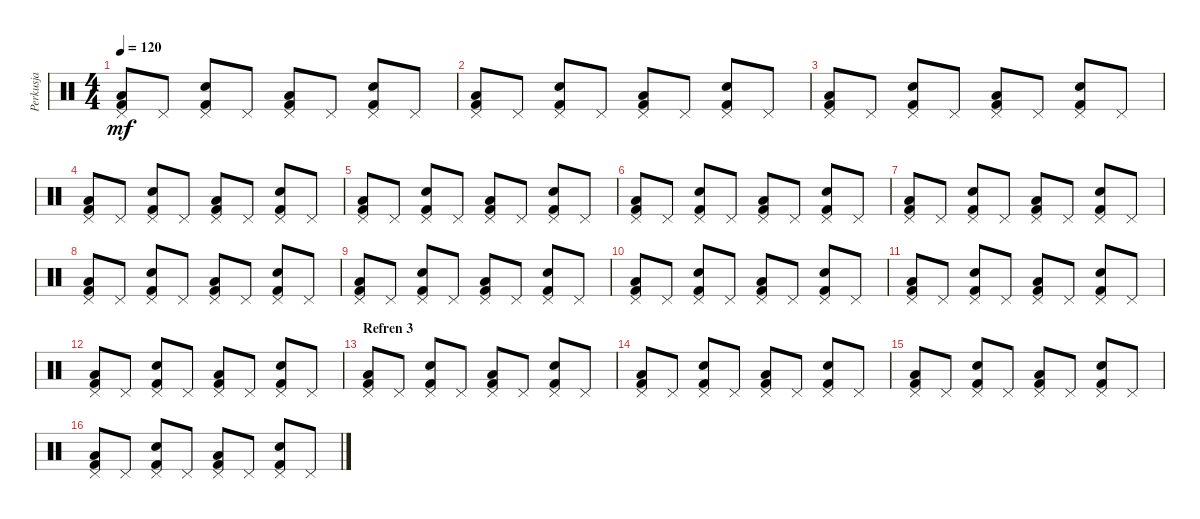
\track ("Perkusja" "Perkusja") {instrument percussion}
\staff {score}
\articulation defaults
\ts (4 4)
\tempo 120
\clef neutral
\ks c
("Pedal Hi-Hat (hit)" "Low Floor Tom (hit)" "Kick (hit) 2").8{dy mf} "Pedal Hi-Hat (hit)".8 ("Pedal Hi-Hat (hit)" "Electric Snare (hit)" "Kick (hit) 2").8 "Pedal Hi-Hat (hit)".8 ("Pedal Hi-Hat (hit)" "Low Floor Tom (hit)" "Kick (hit) 2").8 "Pedal Hi-Hat (hit)".8 ("Pedal Hi-Hat (hit)" "Electric Snare (hit)" "Kick (hit) 2").8 "Pedal Hi-Hat (hit)".8 |
("Pedal Hi-Hat (hit)" "Low Floor Tom (hit)" "Kick (hit) 2").8 "Pedal Hi-Hat (hit)".8 ("Pedal Hi-Hat (hit)" "Electric Snare (hit)" "Kick (hit) 2").8 "Pedal Hi-Hat (hit)".8 ("Pedal Hi-Hat (hit)" "Low Floor Tom (hit)" "Kick (hit) 2").8 "Pedal Hi-Hat (hit)".8 ("Pedal Hi-Hat (hit)" "Electric Snare (hit)" "Kick (hit) 2").8 "Pedal Hi-Hat (hit)".8 |
("Pedal Hi-Hat (hit)" "Low Floor Tom (hit)" "Kick (hit) 2").8 "Pedal Hi-Hat (hit)".8 ("Pedal Hi-Hat (hit)" "Electric Snare (hit)" "Kick (hit) 2").8 "Pedal Hi-Hat (hit)".8 ("Pedal Hi-Hat (hit)" "Low Floor Tom (hit)" "Kick (hit) 2").8 "Pedal Hi-Hat (hit)".8 ("Pedal Hi-Hat (hit)" "Electric Snare (hit)" "Kick (hit) 2").8 "Pedal Hi-Hat (hit)".8 |
("Pedal Hi-Hat (hit)" "Low Floor Tom (hit)" "Kick (hit) 2").8 "Pedal Hi-Hat (hit)".8 ("Pedal Hi-Hat (hit)" "Electric Snare (hit)" "Kick (hit) 2").8 "Pedal Hi-Hat (hit)".8 ("Pedal Hi-Hat (hit)" "Low Floor Tom (hit)" "Kick (hit) 2").8 "Pedal Hi-Hat (hit)".8 ("Pedal Hi-Hat (hit)" "Electric Snare (hit)" "Kick (hit) 2").8 "Pedal Hi-Hat (hit)".8 |
("Pedal Hi-Hat (hit)" "Low Floor Tom (hit)" "Kick (hit) 2").8 "Pedal Hi-Hat (hit)".8 ("Pedal Hi-Hat (hit)" "Electric Snare (hit)" "Kick (hit) 2").8 "Pedal Hi-Hat (hit)".8 ("Pedal Hi-Hat (hit)" "Low Floor Tom (hit)" "Kick (hit) 2").8 "Pedal Hi-Hat (hit)".8 ("Pedal Hi-Hat (hit)" "Electric Snare (hit)" "Kick (hit) 2").8 "Pedal Hi-Hat (hit)".8 |
("Pedal Hi-Hat (hit)" "Low Floor Tom (hit)" "Kick (hit) 2").8 "Pedal Hi-Hat (hit)".8 ("Pedal Hi-Hat (hit)" "Electric Snare (hit)" "Kick (hit) 2").8 "Pedal Hi-Hat (hit)".8 ("Pedal Hi-Hat (hit)" "Low Floor Tom (hit)" "Kick (hit) 2").8 "Pedal Hi-Hat (hit)".8 ("Pedal Hi-Hat (hit)" "Electric Snare (hit)" "Kick (hit) 2").8 "Pedal Hi-Hat (hit)".8 |
("Pedal Hi-Hat (hit)" "Low Floor Tom (hit)" "Kick (hit) 2").8 "Pedal Hi-Hat (hit)".8 ("Pedal Hi-Hat (hit)" "Electric Snare (hit)" "Kick (hit) 2").8 "Pedal Hi-Hat (hit)".8 ("Pedal Hi-Hat (hit)" "Low Floor Tom (hit)" "Kick (hit) 2").8 "Pedal Hi-Hat (hit)".8 ("Pedal Hi-Hat (hit)" "Electric Snare (hit)" "Kick (hit) 2").8 "Pedal Hi-Hat (hit)".8 |
("Pedal Hi-Hat (hit)" "Low Floor Tom (hit)" "Kick (hit) 2").8 "Pedal Hi-Hat (hit)".8 ("Pedal Hi-Hat (hit)" "Electric Snare (hit)" "Kick (hit) 2").8 "Pedal Hi-Hat (hit)".8 ("Pedal Hi-Hat (hit)" "Low Floor Tom (hit)" "Kick (hit) 2").8 "Pedal Hi-Hat (hit)".8 ("Pedal Hi-Hat (hit)" "Electric Snare (hit)" "Kick (hit) 2").8 "Pedal Hi-Hat (hit)".8 |
("Pedal Hi-Hat (hit)" "Low Floor Tom (hit)" "Kick (hit) 2").8 "Pedal Hi-Hat (hit)".8 ("Pedal Hi-Hat (hit)" "Electric Snare (hit)" "Kick (hit) 2").8 "Pedal Hi-Hat (hit)".8 ("Pedal Hi-Hat (hit)" "Low Floor Tom (hit)" "Kick (hit) 2").8 "Pedal Hi-Hat (hit)".8 ("Pedal Hi-Hat (hit)" "Electric Snare (hit)" "Kick (hit) 2").8 "Pedal Hi-Hat (hit)".8 |
("Pedal Hi-Hat (hit)" "Low Floor Tom (hit)" "Kick (hit) 2").8 "Pedal Hi-Hat (hit)".8 ("Pedal Hi-Hat (hit)" "Electric Snare (hit)" "Kick (hit) 2").8 "Pedal Hi-Hat (hit)".8 ("Pedal Hi-Hat (hit)" "Low Floor Tom (hit)" "Kick (hit) 2").8 "Pedal Hi-Hat (hit)".8 ("Pedal Hi-Hat (hit)" "Electric Snare (hit)" "Kick (hit) 2").8 "Pedal Hi-Hat (hit)".8 |
("Pedal Hi-Hat (hit)" "Low Floor Tom (hit)" "Kick (hit) 2").8 "Pedal Hi-Hat (hit)".8 ("Pedal Hi-Hat (hit)" "Electric Snare (hit)" "Kick (hit) 2").8 "Pedal Hi-Hat (hit)".8 ("Pedal Hi-Hat (hit)" "Low Floor Tom (hit)" "Kick (hit) 2").8 "Pedal Hi-Hat (hit)".8 ("Pedal Hi-Hat (hit)" "Electric Snare (hit)" "Kick (hit) 2").8 "Pedal Hi-Hat (hit)".8 |
("Pedal Hi-Hat (hit)" "Low Floor Tom (hit)" "Kick (hit) 2").8 "Pedal Hi-Hat (hit)".8 ("Pedal Hi-Hat (hit)" "Electric Snare (hit)" "Kick (hit) 2").8 "Pedal Hi-Hat (hit)".8 ("Pedal Hi-Hat (hit)" "Low Floor Tom (hit)" "Kick (hit) 2").8 "Pedal Hi-Hat (hit)".8 ("Pedal Hi-Hat (hit)" "Electric Snare (hit)" "Kick (hit) 2").8 "Pedal Hi-Hat (hit)".8 |
\section ("" "Refren 3")
("Pedal Hi-Hat (hit)" "Low Floor Tom (hit)" "Kick (hit) 2").8 "Pedal Hi-Hat (hit)".8 ("Pedal Hi-Hat (hit)" "Electric Snare (hit)" "Kick (hit) 2").8 "Pedal Hi-Hat (hit)".8 ("Pedal Hi-Hat (hit)" "Low Floor Tom (hit)" "Kick (hit) 2").8 "Pedal Hi-Hat (hit)".8 ("Pedal Hi-Hat (hit)" "Electric Snare (hit)" "Kick (hit) 2").8 "Pedal Hi-Hat (hit)".8 |
("Pedal Hi-Hat (hit)" "Low Floor Tom (hit)" "Kick (hit) 2").8 "Pedal Hi-Hat (hit)".8 ("Pedal Hi-Hat (hit)" "Electric Snare (hit)" "Kick (hit) 2").8 "Pedal Hi-Hat (hit)".8 ("Pedal Hi-Hat (hit)" "Low Floor Tom (hit)" "Kick (hit) 2").8 "Pedal Hi-Hat (hit)".8 ("Pedal Hi-Hat (hit)" "Electric Snare (hit)" "Kick (hit) 2").8 "Pedal Hi-Hat (hit)".8 |
("Pedal Hi-Hat (hit)" "Low Floor Tom (hit)" "Kick (hit) 2").8 "Pedal Hi-Hat (hit)".8 ("Pedal Hi-Hat (hit)" "Electric Snare (hit)" "Kick (hit) 2").8 "Pedal Hi-Hat (hit)".8 ("Pedal Hi-Hat (hit)" "Low Floor Tom (hit)" "Kick (hit) 2").8 "Pedal Hi-Hat (hit)".8 ("Pedal Hi-Hat (hit)" "Electric Snare (hit)" "Kick (hit) 2").8 "Pedal Hi-Hat (hit)".8 |
("Pedal Hi-Hat (hit)" "Low Floor Tom (hit)" "Kick (hit) 2").8 "Pedal Hi-Hat (hit)".8 ("Pedal Hi-Hat (hit)" "Electric Snare (hit)" "Kick (hit) 2").8 "Pedal Hi-Hat (hit)".8 ("Pedal Hi-Hat (hit)" "Low Floor Tom (hit)" "Kick (hit) 2").8 "Pedal Hi-Hat (hit)".8 ("Pedal Hi-Hat (hit)" "Electric Snare (hit)" "Kick (hit) 2").8 "Pedal Hi-Hat (hit)".8
